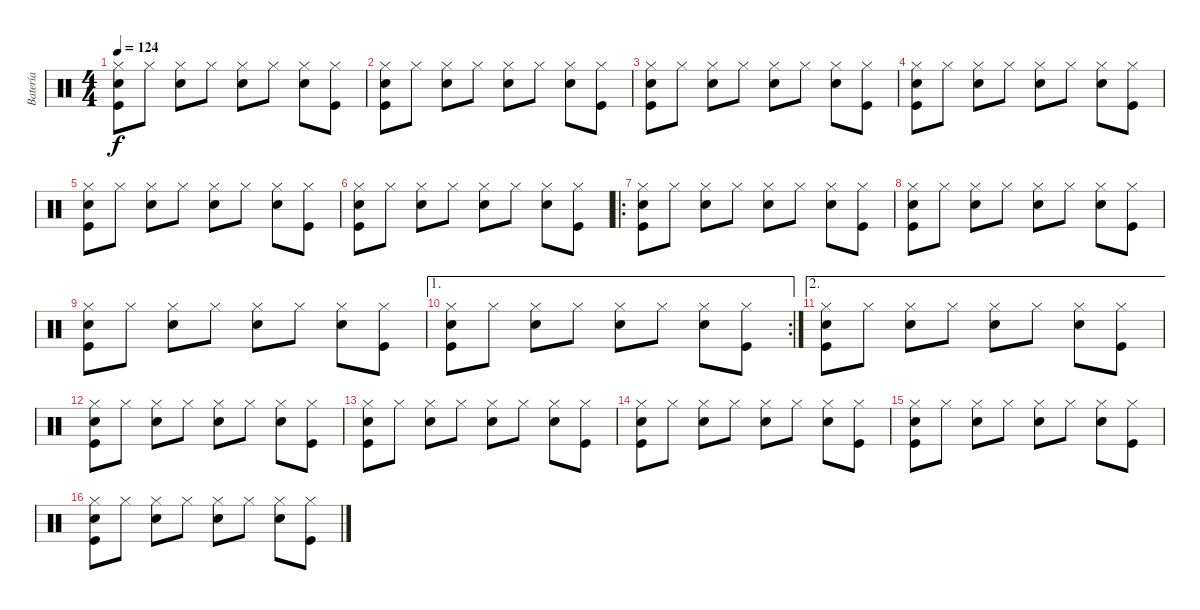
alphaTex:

\track ("Batería" "Batería") {instrument percussion bank 2}
\staff {score}
\articulation defaults
\ts (4 4)
\tempo 124
\clef neutral
\ks c
("Hi-Hat (closed)" "Snare (hit) 2" "Kick (hit)").8{dy f} "Hi-Hat (closed)".8 ("Hi-Hat (closed)" "Snare (hit) 2").8 "Hi-Hat (closed)".8 ("Hi-Hat (closed)" "Snare (hit) 2").8 "Hi-Hat (closed)".8 ("Hi-Hat (closed)" "Snare (hit) 2").8 ("Hi-Hat (closed)" "Kick (hit)").8 |
("Hi-Hat (closed)" "Snare (hit) 2" "Kick (hit)").8 "Hi-Hat (closed)".8 ("Hi-Hat (closed)" "Snare (hit) 2").8 "Hi-Hat (closed)".8 ("Hi-Hat (closed)" "Snare (hit) 2").8 "Hi-Hat (closed)".8 ("Hi-Hat (closed)" "Snare (hit) 2").8 ("Hi-Hat (closed)" "Kick (hit)").8 |
("Hi-Hat (closed)" "Snare (hit) 2" "Kick (hit)").8 "Hi-Hat (closed)".8 ("Hi-Hat (closed)" "Snare (hit) 2").8 "Hi-Hat (closed)".8 ("Hi-Hat (closed)" "Snare (hit) 2").8 "Hi-Hat (closed)".8 ("Hi-Hat (closed)" "Snare (hit) 2").8 ("Hi-Hat (closed)" "Kick (hit)").8 |
("Hi-Hat (closed)" "Snare (hit) 2" "Kick (hit)").8 "Hi-Hat (closed)".8 ("Hi-Hat (closed)" "Snare (hit) 2").8 "Hi-Hat (closed)".8 ("Hi-Hat (closed)" "Snare (hit) 2").8 "Hi-Hat (closed)".8 ("Hi-Hat (closed)" "Snare (hit) 2").8 ("Hi-Hat (closed)" "Kick (hit)").8 |
("Hi-Hat (closed)" "Snare (hit) 2" "Kick (hit)").8 "Hi-Hat (closed)".8 ("Hi-Hat (closed)" "Snare (hit) 2").8 "Hi-Hat (closed)".8 ("Hi-Hat (closed)" "Snare (hit) 2").8 "Hi-Hat (closed)".8 ("Hi-Hat (closed)" "Snare (hit) 2").8 ("Hi-Hat (closed)" "Kick (hit)").8 |
("Hi-Hat (closed)" "Snare (hit) 2" "Kick (hit)").8 "Hi-Hat (closed)".8 ("Hi-Hat (closed)" "Snare (hit) 2").8 "Hi-Hat (closed)".8 ("Hi-Hat (closed)" "Snare (hit) 2").8 "Hi-Hat (closed)".8 ("Hi-Hat (closed)" "Snare (hit) 2").8 ("Hi-Hat (closed)" "Kick (hit)").8 |
\ro
("Hi-Hat (closed)" "Snare (hit) 2" "Kick (hit)").8 "Hi-Hat (closed)".8 ("Hi-Hat (closed)" "Snare (hit) 2").8 "Hi-Hat (closed)".8 ("Hi-Hat (closed)" "Snare (hit) 2").8 "Hi-Hat (closed)".8 ("Hi-Hat (closed)" "Snare (hit) 2").8 ("Hi-Hat (closed)" "Kick (hit)").8 |
("Hi-Hat (closed)" "Snare (hit) 2" "Kick (hit)").8 "Hi-Hat (closed)".8 ("Hi-Hat (closed)" "Snare (hit) 2").8 "Hi-Hat (closed)".8 ("Hi-Hat (closed)" "Snare (hit) 2").8 "Hi-Hat (closed)".8 ("Hi-Hat (closed)" "Snare (hit) 2").8 ("Hi-Hat (closed)" "Kick (hit)").8 |
("Hi-Hat (closed)" "Snare (hit) 2" "Kick (hit)").8 "Hi-Hat (closed)".8 ("Hi-Hat (closed)" "Snare (hit) 2").8 "Hi-Hat (closed)".8 ("Hi-Hat (closed)" "Snare (hit) 2").8 "Hi-Hat (closed)".8 ("Hi-Hat (closed)" "Snare (hit) 2").8 ("Hi-Hat (closed)" "Kick (hit)").8 |
\ae 1
\rc 2
("Hi-Hat (closed)" "Snare (hit) 2" "Kick (hit)").8 "Hi-Hat (closed)".8 ("Hi-Hat (closed)" "Snare (hit) 2").8 "Hi-Hat (closed)".8 ("Hi-Hat (closed)" "Snare (hit) 2").8 "Hi-Hat (closed)".8 ("Hi-Hat (closed)" "Snare (hit) 2").8 ("Hi-Hat (closed)" "Kick (hit)").8 |
\ae 2
("Hi-Hat (closed)" "Snare (hit) 2" "Kick (hit)").8 "Hi-Hat (closed)".8 ("Hi-Hat (closed)" "Snare (hit) 2").8 "Hi-Hat (closed)".8 ("Hi-Hat (closed)" "Snare (hit) 2").8 "Hi-Hat (closed)".8 ("Hi-Hat (closed)" "Snare (hit) 2").8 ("Hi-Hat (closed)" "Kick (hit)").8 |
("Hi-Hat (closed)" "Snare (hit) 2" "Kick (hit)").8 "Hi-Hat (closed)".8 ("Hi-Hat (closed)" "Snare (hit) 2").8 "Hi-Hat (closed)".8 ("Hi-Hat (closed)" "Snare (hit) 2").8 "Hi-Hat (closed)".8 ("Hi-Hat (closed)" "Snare (hit) 2").8 ("Hi-Hat (closed)" "Kick (hit)").8 |
("Hi-Hat (closed)" "Snare (hit) 2" "Kick (hit)").8 "Hi-Hat (closed)".8 ("Hi-Hat (closed)" "Snare (hit) 2").8 "Hi-Hat (closed)".8 ("Hi-Hat (closed)" "Snare (hit) 2").8 "Hi-Hat (closed)".8 ("Hi-Hat (closed)" "Snare (hit) 2").8 ("Hi-Hat (closed)" "Kick (hit)").8 |
("Hi-Hat (closed)" "Snare (hit) 2" "Kick (hit)").8 "Hi-Hat (closed)".8 ("Hi-Hat (closed)" "Snare (hit) 2").8 "Hi-Hat (closed)".8 ("Hi-Hat (closed)" "Snare (hit) 2").8 "Hi-Hat (closed)".8 ("Hi-Hat (closed)" "Snare (hit) 2").8 ("Hi-Hat (closed)" "Kick (hit)").8 |
("Hi-Hat (closed)" "Snare (hit) 2" "Kick (hit)").8 "Hi-Hat (closed)".8 ("Hi-Hat (closed)" "Snare (hit) 2").8 "Hi-Hat (closed)".8 ("Hi-Hat (closed)" "Snare (hit) 2").8 "Hi-Hat (closed)".8 ("Hi-Hat (closed)" "Snare (hit) 2").8 ("Hi-Hat (closed)" "Kick (hit)").8 |
("Hi-Hat (closed)" "Snare (hit) 2" "Kick (hit)").8 "Hi-Hat (closed)".8 ("Hi-Hat (closed)" "Snare (hit) 2").8 "Hi-Hat (closed)".8 ("Hi-Hat (closed)" "Snare (hit) 2").8 "Hi-Hat (closed)".8 ("Hi-Hat (closed)" "Snare (hit) 2").8 ("Hi-Hat (closed)" "Kick (hit)").8
